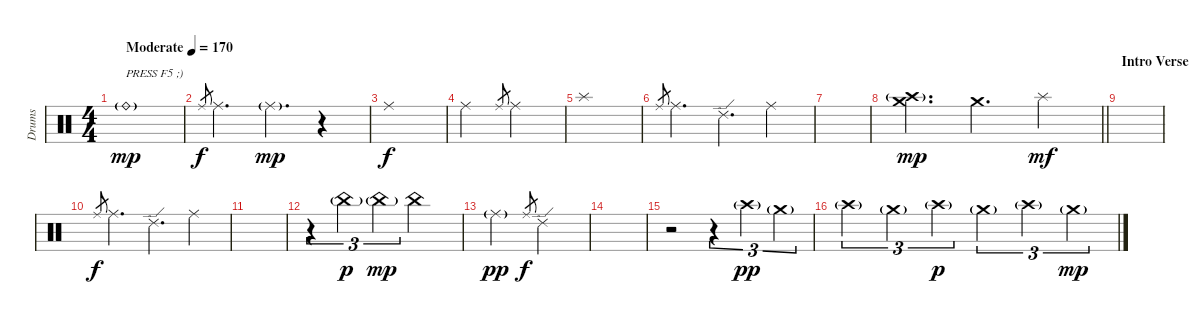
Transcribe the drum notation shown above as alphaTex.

\track ("Drums" "Drums") {instrument percussion}
\staff {score}
\articulation defaults
\ts (4 4)
\tempo (170 "Moderate")
\clef neutral
\ks c "Ride (bell)"{g}.1{txt "PRESS F5 ;)" dy mp}
|
"Ride (middle)".8{gr dy f} "Ride (middle)".4{d} "Ride (middle)"{g}.4{d dy mp} r.4 |
"Ride (middle)".1{dy f} |
"Ride (middle)".2 "Ride (middle)".8{gr} "Ride (middle)".2 |
"Splash (hit)".1 |
"Ride (middle)".8{gr} "Ride (middle)".4{d} "Ride (edge) 2".4{d} "Ride (middle)".4 |
|
\barLineRight lightlight
("Crash high (hit)"{g} "Crash medium (hit)").4{d dy mp} "Crash medium (hit)".4{d} "Splash (hit)".4{dy mf} |
\section ("" "Intro Verse")
|
"Ride (middle)".8{gr dy f} "Ride (middle)".4{d} "Ride (edge) 2".4{d} "Ride (middle)".4 |
|
r.4{tu (3 2)} "China (hit)"{g}.4{tu (3 2) dy p} "China (hit)"{g}.4{tu (3 2) dy mp} "China (hit)".2 |
"Ride (middle)"{g}.2{dy pp} "Ride (middle)".8{gr dy f} "Ride (edge) 2".2 |
|
r.2 r.4{tu (3 2)} "Crash high (hit)"{g}.4{tu (3 2) dy pp} "Crash medium (hit)"{g}.4{tu (3 2)} |
"Crash high (hit)"{g}.4{tu (3 2)} "Crash medium (hit)"{g}.4{tu (3 2)} "Crash high (hit)"{g}.4{tu (3 2) dy p} "Crash medium (hit)"{g}.4{tu (3 2)} "Crash high (hit)"{g}.4{tu (3 2)} "Crash medium (hit)"{g}.4{tu (3 2) dy mp}
